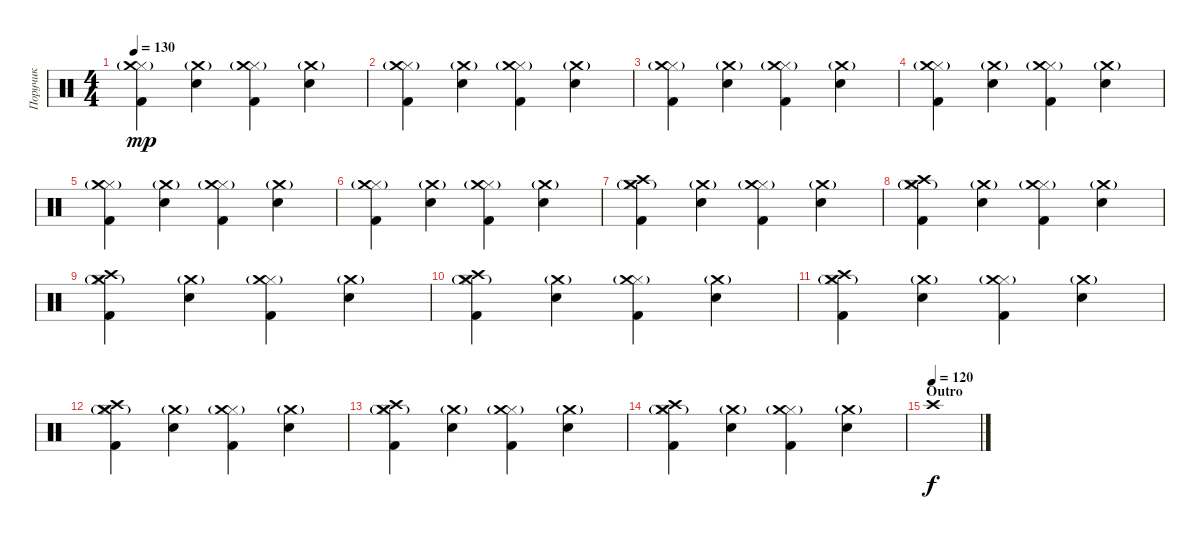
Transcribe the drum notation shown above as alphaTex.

\track ("Поручик" "Поручик") {instrument percussion}
\staff {score}
\articulation defaults
\ts (4 4)
\tempo 130
\clef neutral
\ks c
("Kick (hit) 2" "Hi-Hat (closed)" "Crash medium (hit)"{g}).4{dy mp} ("Snare (hit) 2" "Crash medium (hit)"{g}).4 ("Kick (hit) 2" "Hi-Hat (closed)" "Crash medium (hit)"{g}).4 ("Snare (hit) 2" "Crash medium (hit)"{g}).4 |
("Kick (hit) 2" "Hi-Hat (closed)" "Crash medium (hit)"{g}).4 ("Snare (hit) 2" "Crash medium (hit)"{g}).4 ("Kick (hit) 2" "Hi-Hat (closed)" "Crash medium (hit)"{g}).4 ("Snare (hit) 2" "Crash medium (hit)"{g}).4 |
("Kick (hit) 2" "Hi-Hat (closed)" "Crash medium (hit)"{g}).4 ("Snare (hit) 2" "Crash medium (hit)"{g}).4 ("Kick (hit) 2" "Hi-Hat (closed)" "Crash medium (hit)"{g}).4 ("Snare (hit) 2" "Crash medium (hit)"{g}).4 |
("Kick (hit) 2" "Hi-Hat (closed)" "Crash medium (hit)"{g}).4 ("Snare (hit) 2" "Crash medium (hit)"{g}).4 ("Kick (hit) 2" "Hi-Hat (closed)" "Crash medium (hit)"{g}).4 ("Snare (hit) 2" "Crash medium (hit)"{g}).4 |
("Kick (hit) 2" "Hi-Hat (closed)" "Crash medium (hit)"{g}).4 ("Snare (hit) 2" "Crash medium (hit)"{g}).4 ("Kick (hit) 2" "Hi-Hat (closed)" "Crash medium (hit)"{g}).4 ("Snare (hit) 2" "Crash medium (hit)"{g}).4 |
("Kick (hit) 2" "Hi-Hat (closed)" "Crash medium (hit)"{g}).4 ("Snare (hit) 2" "Crash medium (hit)"{g}).4 ("Kick (hit) 2" "Hi-Hat (closed)" "Crash medium (hit)"{g}).4 ("Snare (hit) 2" "Crash medium (hit)"{g}).4 |
("Kick (hit) 2" "Hi-Hat (closed)" "Crash medium (hit)"{g} "Crash high (hit)").4 ("Snare (hit) 2" "Crash medium (hit)"{g}).4 ("Kick (hit) 2" "Hi-Hat (closed)" "Crash medium (hit)"{g}).4 ("Snare (hit) 2" "Crash medium (hit)"{g}).4 |
("Kick (hit) 2" "Hi-Hat (closed)" "Crash medium (hit)"{g} "Crash high (hit)").4 ("Snare (hit) 2" "Crash medium (hit)"{g}).4 ("Kick (hit) 2" "Hi-Hat (closed)" "Crash medium (hit)"{g}).4 ("Snare (hit) 2" "Crash medium (hit)"{g}).4 |
("Kick (hit) 2" "Hi-Hat (closed)" "Crash medium (hit)"{g} "Crash high (hit)").4 ("Snare (hit) 2" "Crash medium (hit)"{g}).4 ("Kick (hit) 2" "Hi-Hat (closed)" "Crash medium (hit)"{g}).4 ("Snare (hit) 2" "Crash medium (hit)"{g}).4 |
("Kick (hit) 2" "Hi-Hat (closed)" "Crash medium (hit)"{g} "Crash high (hit)").4 ("Snare (hit) 2" "Crash medium (hit)"{g}).4 ("Kick (hit) 2" "Hi-Hat (closed)" "Crash medium (hit)"{g}).4 ("Snare (hit) 2" "Crash medium (hit)"{g}).4 |
("Kick (hit) 2" "Hi-Hat (closed)" "Crash medium (hit)"{g} "Crash high (hit)").4 ("Snare (hit) 2" "Crash medium (hit)"{g}).4 ("Kick (hit) 2" "Hi-Hat (closed)" "Crash medium (hit)"{g}).4 ("Snare (hit) 2" "Crash medium (hit)"{g}).4 |
("Kick (hit) 2" "Hi-Hat (closed)" "Crash medium (hit)"{g} "Crash high (hit)").4 ("Snare (hit) 2" "Crash medium (hit)"{g}).4 ("Kick (hit) 2" "Hi-Hat (closed)" "Crash medium (hit)"{g}).4 ("Snare (hit) 2" "Crash medium (hit)"{g}).4 |
("Kick (hit) 2" "Hi-Hat (closed)" "Crash medium (hit)"{g} "Crash high (hit)").4 ("Snare (hit) 2" "Crash medium (hit)"{g}).4 ("Kick (hit) 2" "Hi-Hat (closed)" "Crash medium (hit)"{g}).4 ("Snare (hit) 2" "Crash medium (hit)"{g}).4 |
("Kick (hit) 2" "Hi-Hat (closed)" "Crash medium (hit)"{g} "Crash high (hit)").4 ("Snare (hit) 2" "Crash medium (hit)"{g}).4 ("Kick (hit) 2" "Hi-Hat (closed)" "Crash medium (hit)"{g}).4 ("Snare (hit) 2" "Crash medium (hit)"{g}).4 |
\section ("" "Outro")
\tempo (120)
"Crash high (hit)".1{dy f}
